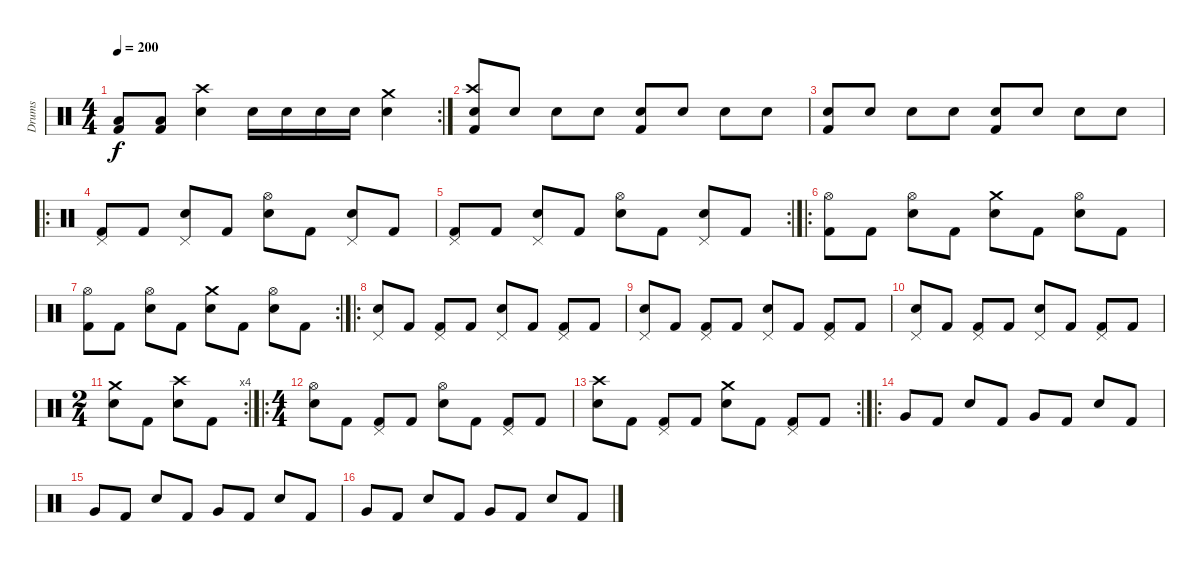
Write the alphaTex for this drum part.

\track ("Drums" "Drums") {instrument percussion}
\staff {score}
\articulation defaults
\rc 2
\ts (4 4)
\tempo 200
\clef neutral
\ks c
("Low Tom (hit)" "Kick (hit) 2").8{dy f} ("Low Tom (hit)" "Kick (hit) 2").8 ("Crash high (hit)" "Electric Snare (hit)").4 "Electric Snare (hit)".16 "Electric Snare (hit)".16 "Electric Snare (hit)".16 "Electric Snare (hit)".16 ("Crash medium (hit)" "Electric Snare (hit)").4 |
("Crash high (hit)" "Electric Snare (hit)" "Kick (hit) 2").8 "Electric Snare (hit)".8 "Electric Snare (hit)".8 "Electric Snare (hit)".8 ("Electric Snare (hit)" "Kick (hit) 2").8 "Electric Snare (hit)".8 "Electric Snare (hit)".8 "Electric Snare (hit)".8 |
("Electric Snare (hit)" "Kick (hit) 2").8 "Electric Snare (hit)".8 "Electric Snare (hit)".8 "Electric Snare (hit)".8 ("Electric Snare (hit)" "Kick (hit) 2").8 "Electric Snare (hit)".8 "Electric Snare (hit)".8 "Electric Snare (hit)".8 |
\ro
("Pedal Hi-Hat (hit)" "Kick (hit) 2").8 "Kick (hit) 2".8 ("Pedal Hi-Hat (hit)" "Snare (hit) 2").8 "Kick (hit) 2".8 ("Hi-Hat (open)" "Snare (hit) 2").8 "Kick (hit) 2".8 ("Pedal Hi-Hat (hit)" "Snare (hit) 2").8 "Kick (hit) 2".8 |
\rc 2
("Pedal Hi-Hat (hit)" "Kick (hit) 2").8 "Kick (hit) 2".8 ("Pedal Hi-Hat (hit)" "Snare (hit) 2").8 "Kick (hit) 2".8 ("Hi-Hat (open)" "Snare (hit) 2").8 "Kick (hit) 2".8 ("Pedal Hi-Hat (hit)" "Snare (hit) 2").8 "Kick (hit) 2".8 |
\ro
("Hi-Hat (open)" "Kick (hit) 2").8 "Kick (hit) 2".8 ("Hi-Hat (open)" "Snare (hit) 2").8 "Kick (hit) 2".8 ("Crash medium (hit)" "Snare (hit) 2").8 "Kick (hit) 2".8 ("Hi-Hat (open)" "Snare (hit) 2").8 "Kick (hit) 2".8 |
\rc 2
("Hi-Hat (open)" "Kick (hit) 2").8 "Kick (hit) 2".8 ("Hi-Hat (open)" "Snare (hit) 2").8 "Kick (hit) 2".8 ("Crash medium (hit)" "Snare (hit) 2").8 "Kick (hit) 2".8 ("Hi-Hat (open)" "Snare (hit) 2").8 "Kick (hit) 2".8 |
\ro
("Pedal Hi-Hat (hit)" "Electric Snare (hit)").8 "Kick (hit) 2".8 ("Pedal Hi-Hat (hit)" "Kick (hit) 2").8 "Kick (hit) 2".8 ("Pedal Hi-Hat (hit)" "Electric Snare (hit)").8 "Kick (hit) 2".8 ("Pedal Hi-Hat (hit)" "Kick (hit) 2").8 "Kick (hit) 2".8 |
("Pedal Hi-Hat (hit)" "Electric Snare (hit)").8 "Kick (hit) 2".8 ("Pedal Hi-Hat (hit)" "Kick (hit) 2").8 "Kick (hit) 2".8 ("Pedal Hi-Hat (hit)" "Electric Snare (hit)").8 "Kick (hit) 2".8 ("Pedal Hi-Hat (hit)" "Kick (hit) 2").8 "Kick (hit) 2".8 |
("Pedal Hi-Hat (hit)" "Electric Snare (hit)").8 "Kick (hit) 2".8 ("Pedal Hi-Hat (hit)" "Kick (hit) 2").8 "Kick (hit) 2".8 ("Pedal Hi-Hat (hit)" "Electric Snare (hit)").8 "Kick (hit) 2".8 ("Pedal Hi-Hat (hit)" "Kick (hit) 2").8 "Kick (hit) 2".8 |
\rc 4
\ts (2 4)
("Crash medium (hit)" "Electric Snare (hit)").8 "Kick (hit) 2".8 ("Crash high (hit)" "Electric Snare (hit)").8 "Kick (hit) 2".8 |
\ro
\ts (4 4)
("Hi-Hat (open)" "Electric Snare (hit)").8 "Kick (hit) 2".8 ("Pedal Hi-Hat (hit)" "Kick (hit) 2").8 "Kick (hit) 2".8 ("Hi-Hat (open)" "Electric Snare (hit)").8 "Kick (hit) 2".8 ("Pedal Hi-Hat (hit)" "Kick (hit) 2").8 "Kick (hit) 2".8 |
\rc 2
("Crash high (hit)" "Electric Snare (hit)").8 "Kick (hit) 2".8 ("Pedal Hi-Hat (hit)" "Kick (hit) 2").8 "Kick (hit) 2".8 ("Crash medium (hit)" "Electric Snare (hit)").8 "Kick (hit) 2".8 ("Pedal Hi-Hat (hit)" "Kick (hit) 2").8 "Kick (hit) 2".8 |
\ro "Very Low Tom (hit)".8 "Kick (hit) 2".8 "Electric Snare (hit)".8 "Kick (hit) 2".8 "Very Low Tom (hit)".8 "Kick (hit) 2".8 "Electric Snare (hit)".8 "Kick (hit) 2".8
|
"Very Low Tom (hit)".8 "Kick (hit) 2".8 "Electric Snare (hit)".8 "Kick (hit) 2".8 "Very Low Tom (hit)".8 "Kick (hit) 2".8 "Electric Snare (hit)".8 "Kick (hit) 2".8 |
"Very Low Tom (hit)".8 "Kick (hit) 2".8 "Electric Snare (hit)".8 "Kick (hit) 2".8 "Very Low Tom (hit)".8 "Kick (hit) 2".8 "Electric Snare (hit)".8 "Kick (hit) 2".8
